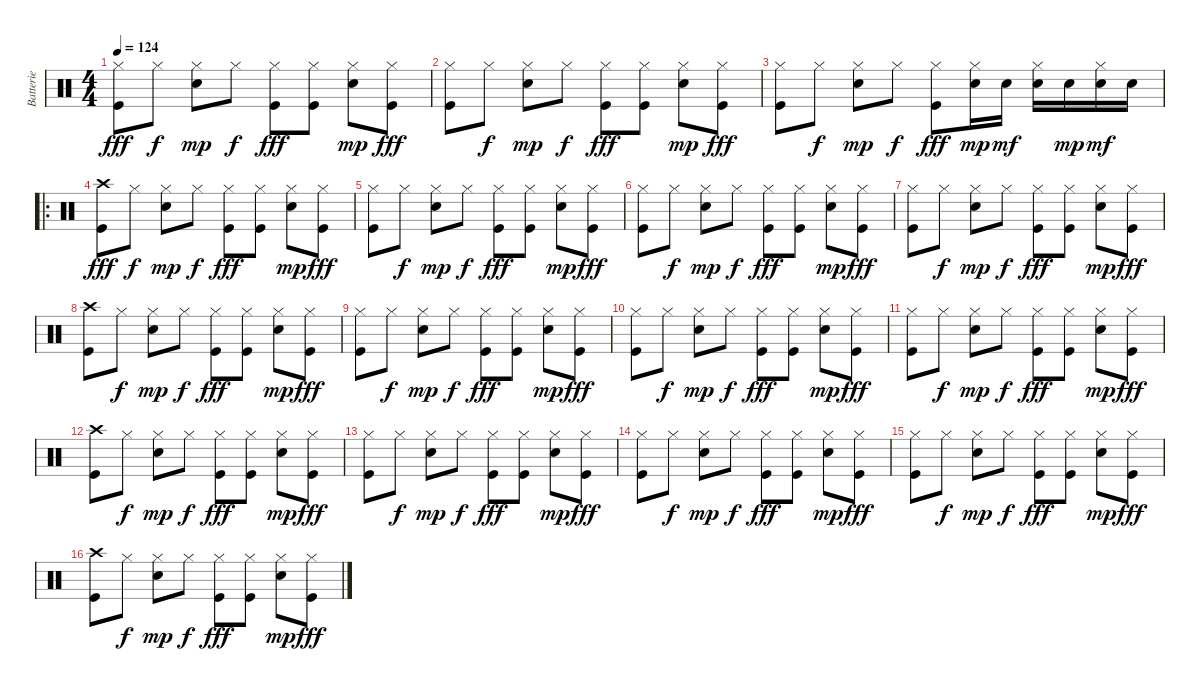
\track ("Batterie" "Batterie") {instrument percussion}
\staff {score}
\articulation defaults
\ts (4 4)
\tempo 124
\clef neutral
\ks c
("Hi-Hat (closed)" "Kick (hit)").8{dy fff} "Hi-Hat (closed)".8{dy f} ("Hi-Hat (closed)" "Electric Snare (hit)").8{dy mp} "Hi-Hat (closed)".8{dy f} ("Hi-Hat (closed)" "Kick (hit)").8{dy fff} ("Hi-Hat (closed)" "Kick (hit)").8 ("Hi-Hat (closed)" "Electric Snare (hit)").8{dy mp} ("Hi-Hat (closed)" "Kick (hit)").8{dy fff} |
("Hi-Hat (closed)" "Kick (hit)").8 "Hi-Hat (closed)".8{dy f} ("Hi-Hat (closed)" "Electric Snare (hit)").8{dy mp} "Hi-Hat (closed)".8{dy f} ("Hi-Hat (closed)" "Kick (hit)").8{dy fff} ("Hi-Hat (closed)" "Kick (hit)").8 ("Hi-Hat (closed)" "Electric Snare (hit)").8{dy mp} ("Hi-Hat (closed)" "Kick (hit)").8{dy fff} |
("Hi-Hat (closed)" "Kick (hit)").8 "Hi-Hat (closed)".8{dy f} ("Hi-Hat (closed)" "Electric Snare (hit)").8{dy mp} "Hi-Hat (closed)".8{dy f} ("Hi-Hat (closed)" "Kick (hit)").8{dy fff} ("Hi-Hat (closed)" "Electric Snare (hit)").16{dy mp} "Electric Snare (hit)".16{dy mf} ("Hi-Hat (closed)" "Electric Snare (hit)").16 "Electric Snare (hit)".16{dy mp} ("Hi-Hat (closed)" "Electric Snare (hit)").16{dy mf} "Electric Snare (hit)".16 |
\ro
("Crash high (hit)" "Kick (hit)").8{dy fff} "Hi-Hat (closed)".8{dy f} ("Hi-Hat (closed)" "Electric Snare (hit)").8{dy mp} "Hi-Hat (closed)".8{dy f} ("Hi-Hat (closed)" "Kick (hit)").8{dy fff} ("Hi-Hat (closed)" "Kick (hit)").8 ("Hi-Hat (closed)" "Electric Snare (hit)").8{dy mp} ("Hi-Hat (closed)" "Kick (hit)").8{dy fff} |
("Hi-Hat (closed)" "Kick (hit)").8 "Hi-Hat (closed)".8{dy f} ("Hi-Hat (closed)" "Electric Snare (hit)").8{dy mp} "Hi-Hat (closed)".8{dy f} ("Hi-Hat (closed)" "Kick (hit)").8{dy fff} ("Hi-Hat (closed)" "Kick (hit)").8 ("Hi-Hat (closed)" "Electric Snare (hit)").8{dy mp} ("Hi-Hat (closed)" "Kick (hit)").8{dy fff} |
("Hi-Hat (closed)" "Kick (hit)").8 "Hi-Hat (closed)".8{dy f} ("Hi-Hat (closed)" "Electric Snare (hit)").8{dy mp} "Hi-Hat (closed)".8{dy f} ("Hi-Hat (closed)" "Kick (hit)").8{dy fff} ("Hi-Hat (closed)" "Kick (hit)").8 ("Hi-Hat (closed)" "Electric Snare (hit)").8{dy mp} ("Hi-Hat (closed)" "Kick (hit)").8{dy fff} |
("Hi-Hat (closed)" "Kick (hit)").8 "Hi-Hat (closed)".8{dy f} ("Hi-Hat (closed)" "Electric Snare (hit)").8{dy mp} "Hi-Hat (closed)".8{dy f} ("Hi-Hat (closed)" "Kick (hit)").8{dy fff} ("Hi-Hat (closed)" "Kick (hit)").8 ("Hi-Hat (closed)" "Electric Snare (hit)").8{dy mp} ("Hi-Hat (closed)" "Kick (hit)").8{dy fff} |
("Crash high (hit)" "Kick (hit)").8 "Hi-Hat (closed)".8{dy f} ("Hi-Hat (closed)" "Electric Snare (hit)").8{dy mp} "Hi-Hat (closed)".8{dy f} ("Hi-Hat (closed)" "Kick (hit)").8{dy fff} ("Hi-Hat (closed)" "Kick (hit)").8 ("Hi-Hat (closed)" "Electric Snare (hit)").8{dy mp} ("Hi-Hat (closed)" "Kick (hit)").8{dy fff} |
("Hi-Hat (closed)" "Kick (hit)").8 "Hi-Hat (closed)".8{dy f} ("Hi-Hat (closed)" "Electric Snare (hit)").8{dy mp} "Hi-Hat (closed)".8{dy f} ("Hi-Hat (closed)" "Kick (hit)").8{dy fff} ("Hi-Hat (closed)" "Kick (hit)").8 ("Hi-Hat (closed)" "Electric Snare (hit)").8{dy mp} ("Hi-Hat (closed)" "Kick (hit)").8{dy fff} |
("Hi-Hat (closed)" "Kick (hit)").8 "Hi-Hat (closed)".8{dy f} ("Hi-Hat (closed)" "Electric Snare (hit)").8{dy mp} "Hi-Hat (closed)".8{dy f} ("Hi-Hat (closed)" "Kick (hit)").8{dy fff} ("Hi-Hat (closed)" "Kick (hit)").8 ("Hi-Hat (closed)" "Electric Snare (hit)").8{dy mp} ("Hi-Hat (closed)" "Kick (hit)").8{dy fff} |
("Hi-Hat (closed)" "Kick (hit)").8 "Hi-Hat (closed)".8{dy f} ("Hi-Hat (closed)" "Electric Snare (hit)").8{dy mp} "Hi-Hat (closed)".8{dy f} ("Hi-Hat (closed)" "Kick (hit)").8{dy fff} ("Hi-Hat (closed)" "Kick (hit)").8 ("Hi-Hat (closed)" "Electric Snare (hit)").8{dy mp} ("Hi-Hat (closed)" "Kick (hit)").8{dy fff} |
("Crash high (hit)" "Kick (hit)").8 "Hi-Hat (closed)".8{dy f} ("Hi-Hat (closed)" "Electric Snare (hit)").8{dy mp} "Hi-Hat (closed)".8{dy f} ("Hi-Hat (closed)" "Kick (hit)").8{dy fff} ("Hi-Hat (closed)" "Kick (hit)").8 ("Hi-Hat (closed)" "Electric Snare (hit)").8{dy mp} ("Hi-Hat (closed)" "Kick (hit)").8{dy fff} |
("Hi-Hat (closed)" "Kick (hit)").8 "Hi-Hat (closed)".8{dy f} ("Hi-Hat (closed)" "Electric Snare (hit)").8{dy mp} "Hi-Hat (closed)".8{dy f} ("Hi-Hat (closed)" "Kick (hit)").8{dy fff} ("Hi-Hat (closed)" "Kick (hit)").8 ("Hi-Hat (closed)" "Electric Snare (hit)").8{dy mp} ("Hi-Hat (closed)" "Kick (hit)").8{dy fff} |
("Hi-Hat (closed)" "Kick (hit)").8 "Hi-Hat (closed)".8{dy f} ("Hi-Hat (closed)" "Electric Snare (hit)").8{dy mp} "Hi-Hat (closed)".8{dy f} ("Hi-Hat (closed)" "Kick (hit)").8{dy fff} ("Hi-Hat (closed)" "Kick (hit)").8 ("Hi-Hat (closed)" "Electric Snare (hit)").8{dy mp} ("Hi-Hat (closed)" "Kick (hit)").8{dy fff} |
("Hi-Hat (closed)" "Kick (hit)").8 "Hi-Hat (closed)".8{dy f} ("Hi-Hat (closed)" "Electric Snare (hit)").8{dy mp} "Hi-Hat (closed)".8{dy f} ("Hi-Hat (closed)" "Kick (hit)").8{dy fff} ("Hi-Hat (closed)" "Kick (hit)").8 ("Hi-Hat (closed)" "Electric Snare (hit)").8{dy mp} ("Hi-Hat (closed)" "Kick (hit)").8{dy fff} |
("Crash high (hit)" "Kick (hit)").8 "Hi-Hat (closed)".8{dy f} ("Hi-Hat (closed)" "Electric Snare (hit)").8{dy mp} "Hi-Hat (closed)".8{dy f} ("Hi-Hat (closed)" "Kick (hit)").8{dy fff} ("Hi-Hat (closed)" "Kick (hit)").8 ("Hi-Hat (closed)" "Electric Snare (hit)").8{dy mp} ("Hi-Hat (closed)" "Kick (hit)").8{dy fff}
